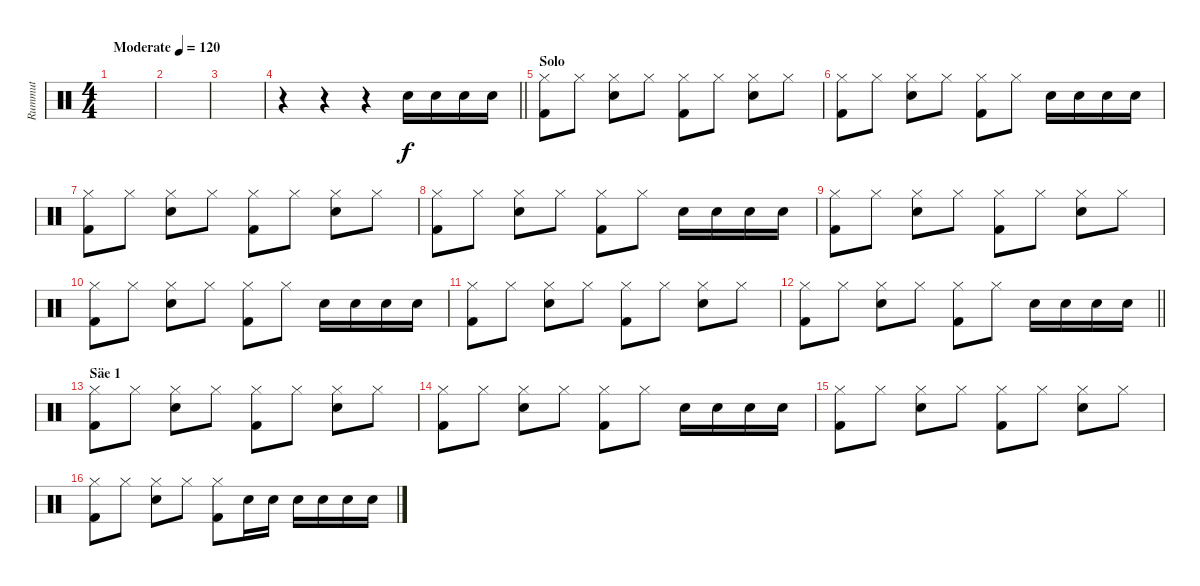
\track ("Rummut" "Rummut") {instrument percussion}
\staff {score}
\articulation defaults
\ts (4 4)
\tempo (120 "Moderate")
\clef neutral
\ks c
|
|
|
\barLineRight lightlight
r.4 r.4 r.4 "Electric Snare (hit)".16 "Electric Snare (hit)".16 "Electric Snare (hit)".16 "Electric Snare (hit)".16 |
\section ("" "Solo")
("Hi-Hat (closed)" "Kick (hit) 2").8 "Hi-Hat (closed)".8 ("Hi-Hat (closed)" "Electric Snare (hit)").8 "Hi-Hat (closed)".8 ("Hi-Hat (closed)" "Kick (hit) 2").8 "Hi-Hat (closed)".8 ("Hi-Hat (closed)" "Electric Snare (hit)").8 "Hi-Hat (closed)".8 |
("Hi-Hat (closed)" "Kick (hit) 2").8 "Hi-Hat (closed)".8 ("Hi-Hat (closed)" "Electric Snare (hit)").8 "Hi-Hat (closed)".8 ("Hi-Hat (closed)" "Kick (hit) 2").8 "Hi-Hat (closed)".8 "Electric Snare (hit)".16 "Electric Snare (hit)".16 "Electric Snare (hit)".16 "Electric Snare (hit)".16 |
("Hi-Hat (closed)" "Kick (hit) 2").8 "Hi-Hat (closed)".8 ("Hi-Hat (closed)" "Electric Snare (hit)").8 "Hi-Hat (closed)".8 ("Hi-Hat (closed)" "Kick (hit) 2").8 "Hi-Hat (closed)".8 ("Hi-Hat (closed)" "Electric Snare (hit)").8 "Hi-Hat (closed)".8 |
("Hi-Hat (closed)" "Kick (hit) 2").8 "Hi-Hat (closed)".8 ("Hi-Hat (closed)" "Electric Snare (hit)").8 "Hi-Hat (closed)".8 ("Hi-Hat (closed)" "Kick (hit) 2").8 "Hi-Hat (closed)".8 "Electric Snare (hit)".16 "Electric Snare (hit)".16 "Electric Snare (hit)".16 "Electric Snare (hit)".16 |
("Hi-Hat (closed)" "Kick (hit) 2").8 "Hi-Hat (closed)".8 ("Hi-Hat (closed)" "Electric Snare (hit)").8 "Hi-Hat (closed)".8 ("Hi-Hat (closed)" "Kick (hit) 2").8 "Hi-Hat (closed)".8 ("Hi-Hat (closed)" "Electric Snare (hit)").8 "Hi-Hat (closed)".8 |
("Hi-Hat (closed)" "Kick (hit) 2").8 "Hi-Hat (closed)".8 ("Hi-Hat (closed)" "Electric Snare (hit)").8 "Hi-Hat (closed)".8 ("Hi-Hat (closed)" "Kick (hit) 2").8 "Hi-Hat (closed)".8 "Electric Snare (hit)".16 "Electric Snare (hit)".16 "Electric Snare (hit)".16 "Electric Snare (hit)".16 |
("Hi-Hat (closed)" "Kick (hit) 2").8 "Hi-Hat (closed)".8 ("Hi-Hat (closed)" "Electric Snare (hit)").8 "Hi-Hat (closed)".8 ("Hi-Hat (closed)" "Kick (hit) 2").8 "Hi-Hat (closed)".8 ("Hi-Hat (closed)" "Electric Snare (hit)").8 "Hi-Hat (closed)".8 |
\barLineRight lightlight
("Hi-Hat (closed)" "Kick (hit) 2").8 "Hi-Hat (closed)".8 ("Hi-Hat (closed)" "Electric Snare (hit)").8 "Hi-Hat (closed)".8 ("Hi-Hat (closed)" "Kick (hit) 2").8 "Hi-Hat (closed)".8 "Electric Snare (hit)".16 "Electric Snare (hit)".16 "Electric Snare (hit)".16 "Electric Snare (hit)".16 |
\section ("" "Säe 1")
("Hi-Hat (closed)" "Kick (hit) 2").8 "Hi-Hat (closed)".8 ("Hi-Hat (closed)" "Electric Snare (hit)").8 "Hi-Hat (closed)".8 ("Hi-Hat (closed)" "Kick (hit) 2").8 "Hi-Hat (closed)".8 ("Hi-Hat (closed)" "Electric Snare (hit)").8 "Hi-Hat (closed)".8 |
("Hi-Hat (closed)" "Kick (hit) 2").8 "Hi-Hat (closed)".8 ("Hi-Hat (closed)" "Electric Snare (hit)").8 "Hi-Hat (closed)".8 ("Hi-Hat (closed)" "Kick (hit) 2").8 "Hi-Hat (closed)".8 "Electric Snare (hit)".16 "Electric Snare (hit)".16 "Electric Snare (hit)".16 "Electric Snare (hit)".16 |
("Hi-Hat (closed)" "Kick (hit) 2").8 "Hi-Hat (closed)".8 ("Hi-Hat (closed)" "Electric Snare (hit)").8 "Hi-Hat (closed)".8 ("Hi-Hat (closed)" "Kick (hit) 2").8 "Hi-Hat (closed)".8 ("Hi-Hat (closed)" "Electric Snare (hit)").8 "Hi-Hat (closed)".8 |
("Hi-Hat (closed)" "Kick (hit) 2").8 "Hi-Hat (closed)".8 ("Hi-Hat (closed)" "Electric Snare (hit)").8 "Hi-Hat (closed)".8 ("Hi-Hat (closed)" "Kick (hit) 2").8 "Electric Snare (hit)".16 "Electric Snare (hit)".16 "Electric Snare (hit)".16 "Electric Snare (hit)".16 "Electric Snare (hit)".16 "Electric Snare (hit)".16
